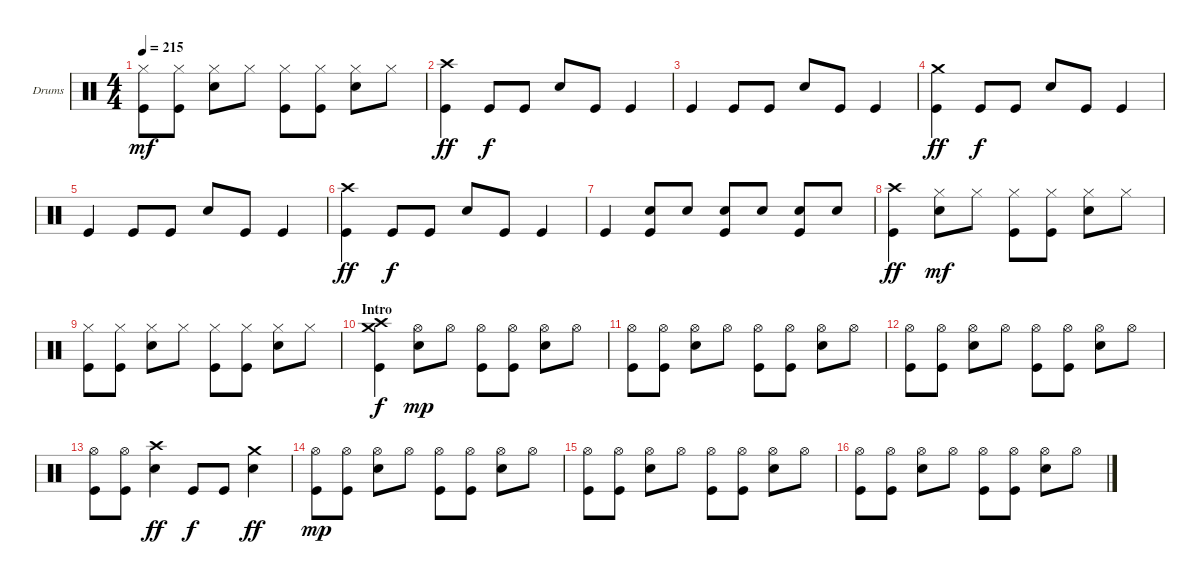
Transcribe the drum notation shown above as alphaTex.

\bracketExtendMode groupsimilarinstruments
\firstSystemTrackNameOrientation horizontal
\otherSystemsTrackNameOrientation horizontal
\track ("Drumkit" "Drums") {instrument percussion}
\staff {score}
\articulation defaults
\ts (4 4)
\tempo 215
\clef neutral
\ks c
("Hi-Hat (closed)" "Kick (hit)").8{dy mf} ("Hi-Hat (closed)" "Kick (hit)").8 ("Hi-Hat (closed)" "Snare (hit) 2").8 "Hi-Hat (closed)".8 ("Hi-Hat (closed)" "Kick (hit)").8 ("Hi-Hat (closed)" "Kick (hit)").8 ("Hi-Hat (closed)" "Snare (hit) 2").8 "Hi-Hat (closed)".8 |
("Crash high (hit)" "Kick (hit)").4{dy ff} "Kick (hit)".8{dy f} "Kick (hit)".8 "Snare (hit) 2".8 "Kick (hit)".8 "Kick (hit)".4 |
"Kick (hit)".4 "Kick (hit)".8 "Kick (hit)".8 "Snare (hit) 2".8 "Kick (hit)".8 "Kick (hit)".4 |
("Crash medium (hit)" "Kick (hit)").4{dy ff} "Kick (hit)".8{dy f} "Kick (hit)".8 "Snare (hit) 2".8 "Kick (hit)".8 "Kick (hit)".4 |
"Kick (hit)".4 "Kick (hit)".8 "Kick (hit)".8 "Snare (hit) 2".8 "Kick (hit)".8 "Kick (hit)".4 |
("Crash high (hit)" "Kick (hit)").4{dy ff} "Kick (hit)".8{dy f} "Kick (hit)".8 "Snare (hit) 2".8 "Kick (hit)".8 "Kick (hit)".4 |
"Kick (hit)".4 ("Snare (hit) 2" "Kick (hit)").8 "Snare (hit) 2".8 ("Snare (hit) 2" "Kick (hit)").8 "Snare (hit) 2".8 ("Snare (hit) 2" "Kick (hit)").8 "Snare (hit) 2".8 |
("Crash high (hit)" "Kick (hit)").4{dy ff} ("Hi-Hat (closed)" "Snare (hit) 2").8{dy mf} "Hi-Hat (closed)".8 ("Hi-Hat (closed)" "Kick (hit)").8 ("Hi-Hat (closed)" "Kick (hit)").8 ("Hi-Hat (closed)" "Snare (hit) 2").8 "Hi-Hat (closed)".8 |
("Hi-Hat (closed)" "Kick (hit)").8 ("Hi-Hat (closed)" "Kick (hit)").8 ("Hi-Hat (closed)" "Snare (hit) 2").8 "Hi-Hat (closed)".8 ("Hi-Hat (closed)" "Kick (hit)").8 ("Hi-Hat (closed)" "Kick (hit)").8 ("Hi-Hat (closed)" "Snare (hit) 2").8 "Hi-Hat (closed)".8 |
\section ("" "Intro")
("Crash medium (hit)" "Crash high (hit)" "Kick (hit)").4{dy f} ("Hi-Hat (open)" "Snare (hit) 2").8{dy mp} "Hi-Hat (open)".8 ("Hi-Hat (open)" "Kick (hit)").8 ("Hi-Hat (open)" "Kick (hit)").8 ("Hi-Hat (open)" "Snare (hit) 2").8 "Hi-Hat (open)".8 |
("Hi-Hat (open)" "Kick (hit)").8 ("Hi-Hat (open)" "Kick (hit)").8 ("Hi-Hat (open)" "Snare (hit) 2").8 "Hi-Hat (open)".8 ("Hi-Hat (open)" "Kick (hit)").8 ("Hi-Hat (open)" "Kick (hit)").8 ("Hi-Hat (open)" "Snare (hit) 2").8 "Hi-Hat (open)".8 |
("Hi-Hat (open)" "Kick (hit)").8 ("Hi-Hat (open)" "Kick (hit)").8 ("Hi-Hat (open)" "Snare (hit) 2").8 "Hi-Hat (open)".8 ("Hi-Hat (open)" "Kick (hit)").8 ("Hi-Hat (open)" "Kick (hit)").8 ("Hi-Hat (open)" "Snare (hit) 2").8 "Hi-Hat (open)".8 |
("Hi-Hat (open)" "Kick (hit)").8 ("Hi-Hat (open)" "Kick (hit)").8 ("Crash high (hit)" "Snare (hit) 2").4{dy ff} "Kick (hit)".8{dy f} "Kick (hit)".8 ("Crash medium (hit)" "Snare (hit) 2").4{dy ff} |
("Hi-Hat (open)" "Kick (hit)").8{dy mp} ("Hi-Hat (open)" "Kick (hit)").8 ("Hi-Hat (open)" "Snare (hit) 2").8 "Hi-Hat (open)".8 ("Hi-Hat (open)" "Kick (hit)").8 ("Hi-Hat (open)" "Kick (hit)").8 ("Hi-Hat (open)" "Snare (hit) 2").8 "Hi-Hat (open)".8 |
("Hi-Hat (open)" "Kick (hit)").8 ("Hi-Hat (open)" "Kick (hit)").8 ("Hi-Hat (open)" "Snare (hit) 2").8 "Hi-Hat (open)".8 ("Hi-Hat (open)" "Kick (hit)").8 ("Hi-Hat (open)" "Kick (hit)").8 ("Hi-Hat (open)" "Snare (hit) 2").8 "Hi-Hat (open)".8 |
("Hi-Hat (open)" "Kick (hit)").8 ("Hi-Hat (open)" "Kick (hit)").8 ("Hi-Hat (open)" "Snare (hit) 2").8 "Hi-Hat (open)".8 ("Hi-Hat (open)" "Kick (hit)").8 ("Hi-Hat (open)" "Kick (hit)").8 ("Hi-Hat (open)" "Snare (hit) 2").8 "Hi-Hat (open)".8
